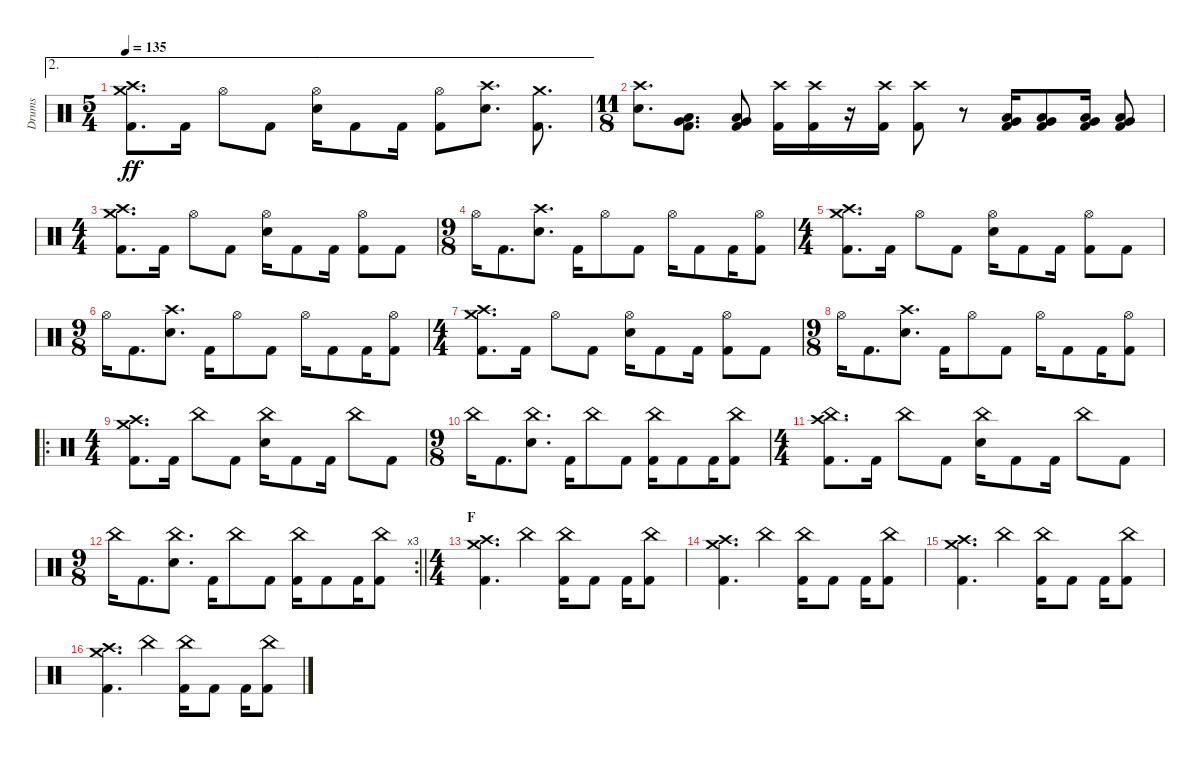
\track ("Drums" "Drums") {instrument percussion}
\staff {score}
\articulation defaults
\ae 2
\ts (5 4)
\tempo 135
\clef neutral
\ks c
("Crash medium (hit)" "Crash high (hit)" "Kick (hit) 2").8{d dy ff} "Kick (hit) 2".16 "Hi-Hat (open)".8 "Kick (hit) 2".8 ("Hi-Hat (open)" "Electric Snare (hit)").16 "Kick (hit) 2".8 "Kick (hit) 2".16 ("Hi-Hat (open)" "Kick (hit) 2").8 ("Crash high (hit)" "Electric Snare (hit)").8{d} ("Crash medium (hit)" "Kick (hit) 2").8{d} |
\ts (11 8)
("Crash high (hit)" "Electric Snare (hit)").8{d} ("Low Tom (hit)" "Very Low Tom (hit)" "Kick (hit) 2").8{d} ("Very Low Tom (hit)" "Low Floor Tom (hit)" "Kick (hit) 2").8 ("Crash high (hit)" "Kick (hit) 2").16 ("Crash high (hit)" "Kick (hit) 2").16 r.16{volume 0} ("Crash high (hit)" "Kick (hit) 2").16{volume 14} ("Crash high (hit)" "Kick (hit) 2").8 r.8{volume 0} ("Low Tom (hit)" "Very Low Tom (hit)" "Kick (hit) 2").16{volume 14} ("Low Tom (hit)" "Very Low Tom (hit)" "Kick (hit) 2").8 ("Very Low Tom (hit)" "Low Floor Tom (hit)" "Kick (hit) 2").16 ("Very Low Tom (hit)" "Low Floor Tom (hit)" "Kick (hit) 2").8 |
\ts (4 4)
("Crash medium (hit)" "Crash high (hit)" "Kick (hit) 2").8{d} "Kick (hit) 2".16 "Hi-Hat (open)".8 "Kick (hit) 2".8 ("Hi-Hat (open)" "Electric Snare (hit)").16 "Kick (hit) 2".8 "Kick (hit) 2".16 ("Hi-Hat (open)" "Kick (hit) 2").8 "Kick (hit) 2".8 |
\ts (9 8)
"Hi-Hat (open)".16 "Kick (hit) 2".8{d} ("Crash high (hit)" "Electric Snare (hit)").8{d} "Kick (hit) 2".16 "Hi-Hat (open)".8 "Kick (hit) 2".8 "Hi-Hat (open)".16 "Kick (hit) 2".8 "Kick (hit) 2".16 ("Hi-Hat (open)" "Kick (hit) 2").8 |
\ts (4 4)
("Crash medium (hit)" "Crash high (hit)" "Kick (hit) 2").8{d} "Kick (hit) 2".16 "Hi-Hat (open)".8 "Kick (hit) 2".8 ("Hi-Hat (open)" "Electric Snare (hit)").16 "Kick (hit) 2".8 "Kick (hit) 2".16 ("Hi-Hat (open)" "Kick (hit) 2").8 "Kick (hit) 2".8 |
\ts (9 8)
"Hi-Hat (open)".16 "Kick (hit) 2".8{d} ("Crash high (hit)" "Electric Snare (hit)").8{d} "Kick (hit) 2".16 "Hi-Hat (open)".8 "Kick (hit) 2".8 "Hi-Hat (open)".16 "Kick (hit) 2".8 "Kick (hit) 2".16 ("Hi-Hat (open)" "Kick (hit) 2").8 |
\ts (4 4)
("Crash medium (hit)" "Crash high (hit)" "Kick (hit) 2").8{d} "Kick (hit) 2".16 "Hi-Hat (open)".8 "Kick (hit) 2".8 ("Hi-Hat (open)" "Electric Snare (hit)").16 "Kick (hit) 2".8 "Kick (hit) 2".16 ("Hi-Hat (open)" "Kick (hit) 2").8 "Kick (hit) 2".8 |
\ts (9 8)
"Hi-Hat (open)".16 "Kick (hit) 2".8{d} ("Crash high (hit)" "Electric Snare (hit)").8{d} "Kick (hit) 2".16 "Hi-Hat (open)".8 "Kick (hit) 2".8 "Hi-Hat (open)".16 "Kick (hit) 2".8 "Kick (hit) 2".16 ("Hi-Hat (open)" "Kick (hit) 2").8 |
\ro
\ts (4 4)
("Crash medium (hit)" "Crash high (hit)" "Kick (hit) 2").8{d} "Kick (hit) 2".16 "China (hit)".8 "Kick (hit) 2".8 ("China (hit)" "Electric Snare (hit)").16 "Kick (hit) 2".8 "Kick (hit) 2".16 "China (hit)".8 "Kick (hit) 2".8 |
\ts (9 8)
"China (hit)".16 "Kick (hit) 2".8{d} ("China (hit)" "Electric Snare (hit)").8{d} "Kick (hit) 2".16 "China (hit)".8 "Kick (hit) 2".8 ("China (hit)" "Kick (hit) 2").16 "Kick (hit) 2".8 "Kick (hit) 2".16 ("China (hit)" "Kick (hit) 2").8 |
\ts (4 4)
("Crash high (hit)" "China (hit)" "Kick (hit) 2").8{d} "Kick (hit) 2".16 "China (hit)".8 "Kick (hit) 2".8 ("China (hit)" "Electric Snare (hit)").16 "Kick (hit) 2".8 "Kick (hit) 2".16 "China (hit)".8 "Kick (hit) 2".8 |
\rc 3
\ts (9 8)
\barLineRight lightlight "China (hit)".16 "Kick (hit) 2".8{d}
("China (hit)" "Electric Snare (hit)").8{d} "Kick (hit) 2".16 "China (hit)".8 "Kick (hit) 2".8 ("China (hit)" "Kick (hit) 2").16 "Kick (hit) 2".8 "Kick (hit) 2".16 ("China (hit)" "Kick (hit) 2").8 |
\ts (4 4)
\section ("" "F")
("Crash medium (hit)" "Crash high (hit)" "Kick (hit) 2").4{d} "China (hit)".4 ("China (hit)" "Kick (hit) 2").16 "Kick (hit) 2".8 "Kick (hit) 2".16 ("China (hit)" "Kick (hit) 2").8 |
("Crash medium (hit)" "Crash high (hit)" "Kick (hit) 2").4{d} "China (hit)".4 ("China (hit)" "Kick (hit) 2").16 "Kick (hit) 2".8 "Kick (hit) 2".16 ("China (hit)" "Kick (hit) 2").8 |
("Crash medium (hit)" "Crash high (hit)" "Kick (hit) 2").4{d} "China (hit)".4 ("China (hit)" "Kick (hit) 2").16 "Kick (hit) 2".8 "Kick (hit) 2".16 ("China (hit)" "Kick (hit) 2").8 |
("Crash medium (hit)" "Crash high (hit)" "Kick (hit) 2").4{d} "China (hit)".4 ("China (hit)" "Kick (hit) 2").16 "Kick (hit) 2".8 "Kick (hit) 2".16 ("China (hit)" "Kick (hit) 2").8
